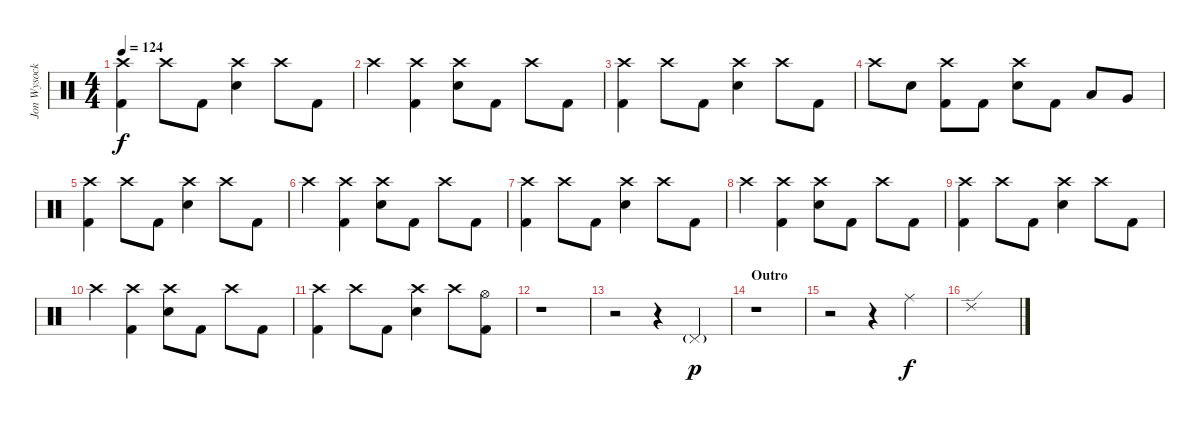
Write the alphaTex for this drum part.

\track ("Jon Wysocki - Drums" "Jon Wysock") {instrument percussion}
\staff {score}
\articulation defaults
\ts (4 4)
\tempo 124
\clef neutral
\ks c
("Crash high (hit)" "Kick (hit) 2").4{dy f} "Crash high (hit)".8 "Kick (hit) 2".8 ("Crash high (hit)" "Electric Snare (hit)").4 "Crash high (hit)".8 "Kick (hit) 2".8 |
"Crash high (hit)".4 ("Crash high (hit)" "Kick (hit) 2").4 ("Crash high (hit)" "Electric Snare (hit)").8 "Kick (hit) 2".8 "Crash high (hit)".8 "Kick (hit) 2".8 |
("Crash high (hit)" "Kick (hit) 2").4 "Crash high (hit)".8 "Kick (hit) 2".8 ("Crash high (hit)" "Electric Snare (hit)").4 "Crash high (hit)".8 "Kick (hit) 2".8 |
"Crash high (hit)".8 "Electric Snare (hit)".8 ("Crash high (hit)" "Kick (hit) 2").8 "Kick (hit) 2".8 ("Crash high (hit)" "Electric Snare (hit)").8 "Kick (hit) 2".8 "Low Tom (hit)".8 "Very Low Tom (hit)".8 |
("Crash high (hit)" "Kick (hit) 2").4 "Crash high (hit)".8 "Kick (hit) 2".8 ("Crash high (hit)" "Electric Snare (hit)").4 "Crash high (hit)".8 "Kick (hit) 2".8 |
"Crash high (hit)".4 ("Crash high (hit)" "Kick (hit) 2").4 ("Crash high (hit)" "Electric Snare (hit)").8 "Kick (hit) 2".8 "Crash high (hit)".8 "Kick (hit) 2".8 |
("Crash high (hit)" "Kick (hit) 2").4 "Crash high (hit)".8 "Kick (hit) 2".8 ("Crash high (hit)" "Electric Snare (hit)").4 "Crash high (hit)".8 "Kick (hit) 2".8 |
"Crash high (hit)".4 ("Crash high (hit)" "Kick (hit) 2").4 ("Crash high (hit)" "Electric Snare (hit)").8 "Kick (hit) 2".8 "Crash high (hit)".8 "Kick (hit) 2".8 |
("Crash high (hit)" "Kick (hit) 2").4 "Crash high (hit)".8 "Kick (hit) 2".8 ("Crash high (hit)" "Electric Snare (hit)").4 "Crash high (hit)".8 "Kick (hit) 2".8 |
"Crash high (hit)".4 ("Crash high (hit)" "Kick (hit) 2").4 ("Crash high (hit)" "Electric Snare (hit)").8 "Kick (hit) 2".8 "Crash high (hit)".8 "Kick (hit) 2".8 |
("Crash high (hit)" "Kick (hit) 2").4 "Crash high (hit)".8 "Kick (hit) 2".8 ("Crash high (hit)" "Electric Snare (hit)").4 "Crash high (hit)".8 ("Hi-Hat (open)" "Kick (hit) 2").8 |
r.1 |
r.2 r.4 "Pedal Hi-Hat (hit)"{g}.4{dy p} |
\section ("" "Outro")
r.1 |
r.2 r.4 "Ride (middle)".4{dy f} |
"Ride (edge) 2".1
